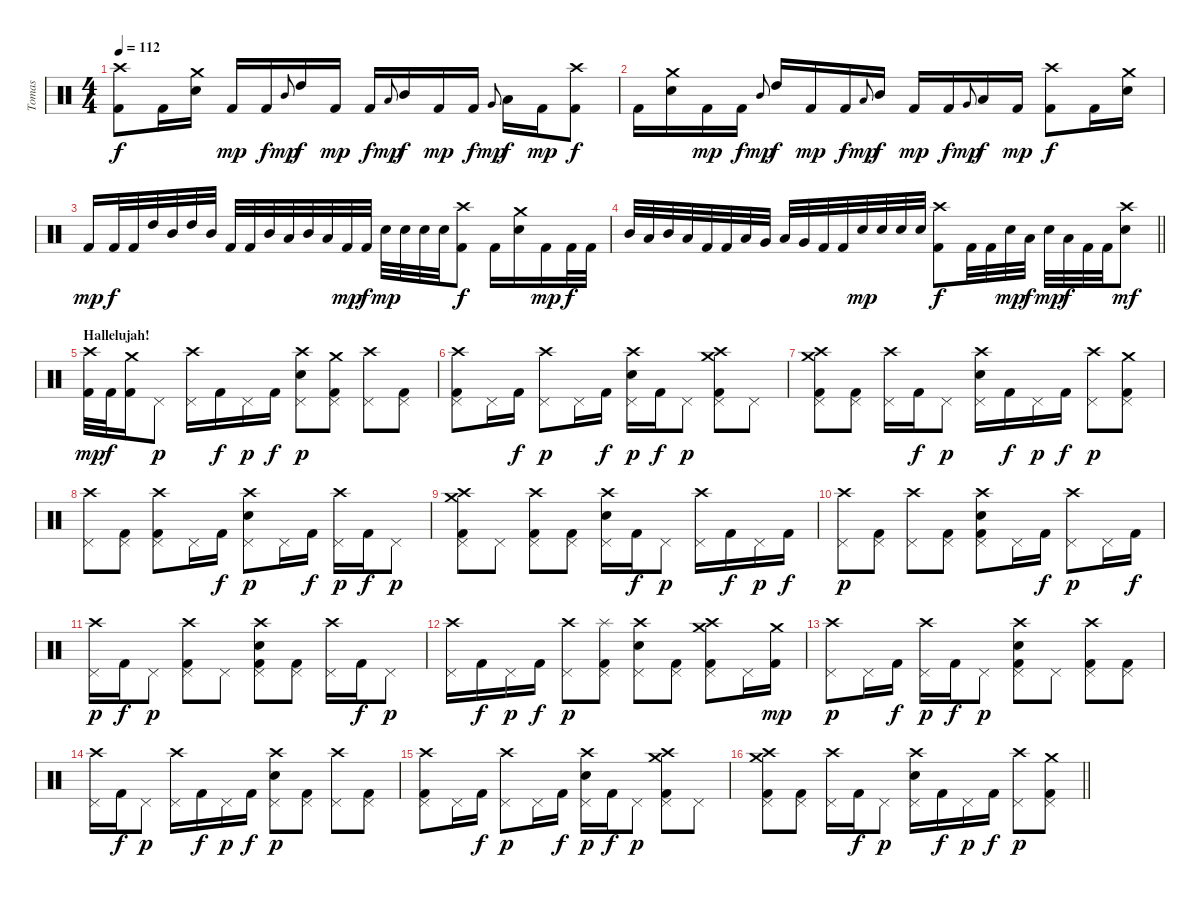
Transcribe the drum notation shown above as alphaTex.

\track ("Tomas" "Tomas") {instrument percussion}
\staff {score}
\articulation defaults
\ts (4 4)
\tempo 112
\clef neutral
\ks c
("Crash high (hit)" "Kick (hit) 2").8{dy f} "Kick (hit) 2".16 ("Crash medium (hit)" "Electric Snare (hit)").16 "Kick (hit) 2".16{dy mp} "Kick (hit) 2".16{dy f} "Mid Tom (hit)".8{gr onbeat dy mp} "High Tom (hit)".16{dy f} "Kick (hit) 2".16{dy mp} "Kick (hit) 2".16{dy f} "Low Tom (hit)".8{gr onbeat dy mp} "Mid Tom (hit)".16{dy f} "Kick (hit) 2".16{dy mp} "Kick (hit) 2".16{dy f} "Very Low Tom (hit)".8{gr onbeat dy mp} "Low Tom (hit)".16{dy f} "Kick (hit) 2".16{dy mp} ("Crash high (hit)" "Kick (hit) 2").8{dy f} |
"Kick (hit) 2".16 ("Crash medium (hit)" "Electric Snare (hit)").16 "Kick (hit) 2".16{dy mp} "Kick (hit) 2".16{dy f} "Mid Tom (hit)".8{gr onbeat dy mp} "High Tom (hit)".16{dy f} "Kick (hit) 2".16{dy mp} "Kick (hit) 2".16{dy f} "Low Tom (hit)".8{gr onbeat dy mp} "Mid Tom (hit)".16{dy f} "Kick (hit) 2".16{dy mp} "Kick (hit) 2".16{dy f} "Very Low Tom (hit)".8{gr onbeat dy mp} "Low Tom (hit)".16{dy f} "Kick (hit) 2".16{dy mp} ("Crash high (hit)" "Kick (hit) 2").8{dy f} "Kick (hit) 2".16 ("Crash medium (hit)" "Electric Snare (hit)").16 |
"Kick (hit) 2".16{dy mp} "Kick (hit) 2".32{dy f} "Kick (hit) 2".32 "High Tom (hit)".32 "Mid Tom (hit)".32 "High Tom (hit)".32 "Mid Tom (hit)".32 "Kick (hit) 2".32 "Kick (hit) 2".32 "Mid Tom (hit)".32 "Low Tom (hit)".32 "Mid Tom (hit)".32 "Low Tom (hit)".32 "Kick (hit) 2".32{dy mp} "Kick (hit) 2".32{dy f} "Electric Snare (hit)".32{dy mp} "Electric Snare (hit)".32 "Electric Snare (hit)".32 "Electric Snare (hit)".32 ("Crash high (hit)" "Kick (hit) 2").8{dy f} "Kick (hit) 2".16 ("Crash medium (hit)" "Electric Snare (hit)").16 "Kick (hit) 2".16{dy mp} "Kick (hit) 2".32{dy f} "Kick (hit) 2".32 |
\barLineRight lightlight "Mid Tom (hit)".32 "Low Tom (hit)".32 "Mid Tom (hit)".32 "Low Tom (hit)".32 "Kick (hit) 2".32 "Kick (hit) 2".32 "Low Tom (hit)".32 "Very Low Tom (hit)".32 "Low Tom (hit)".32 "Very Low Tom (hit)".32 "Kick (hit) 2".32 "Kick (hit) 2".32 "Electric Snare (hit)".32{dy mp} "Electric Snare (hit)".32 "Electric Snare (hit)".32 "Electric Snare (hit)".32
("Crash high (hit)" "Kick (hit) 2").8{dy f} "Kick (hit) 2".32 "Kick (hit) 2".32 "Electric Snare (hit)".32{dy mp} "Low Tom (hit)".32{dy f} "Electric Snare (hit)".32{dy mp} "Low Tom (hit)".32{dy f} "Kick (hit) 2".32 "Kick (hit) 2".32 ("Crash high (hit)" "Electric Snare (hit)").8{dy mf} |
\section ("" "Hallelujah!")
("Crash high (hit)" "Kick (hit) 2").32{dy mp} "Kick (hit) 2".32{dy f} ("Crash medium (hit)" "Kick (hit) 2").16 "Pedal Hi-Hat (hit)".8{dy p} ("Crash high (hit)" "Pedal Hi-Hat (hit)").16 "Kick (hit) 2".16{dy f} "Pedal Hi-Hat (hit)".16{dy p} "Kick (hit) 2".16{dy f} ("Crash high (hit)" "Pedal Hi-Hat (hit)" "Electric Snare (hit)").8{dy p} ("Crash medium (hit)" "Pedal Hi-Hat (hit)" "Kick (hit) 2").8 ("Crash high (hit)" "Pedal Hi-Hat (hit)").8 ("Pedal Hi-Hat (hit)" "Kick (hit) 2").8 |
("Crash high (hit)" "Pedal Hi-Hat (hit)" "Kick (hit) 2").8 "Pedal Hi-Hat (hit)".16 "Kick (hit) 2".16{dy f} ("Crash high (hit)" "Pedal Hi-Hat (hit)").8{dy p} "Pedal Hi-Hat (hit)".16 "Kick (hit) 2".16{dy f} ("Crash high (hit)" "Pedal Hi-Hat (hit)" "Electric Snare (hit)").16{dy p} "Kick (hit) 2".16{dy f} "Pedal Hi-Hat (hit)".8{dy p} ("Crash high (hit)" "Crash medium (hit)" "Pedal Hi-Hat (hit)" "Kick (hit) 2").8 "Pedal Hi-Hat (hit)".8 |
("Crash high (hit)" "Crash medium (hit)" "Pedal Hi-Hat (hit)" "Kick (hit) 2").8 ("Pedal Hi-Hat (hit)" "Kick (hit) 2").8 ("Crash high (hit)" "Pedal Hi-Hat (hit)").16 "Kick (hit) 2".16{dy f} "Pedal Hi-Hat (hit)".8{dy p} ("Crash high (hit)" "Pedal Hi-Hat (hit)" "Electric Snare (hit)").16 "Kick (hit) 2".16{dy f} "Pedal Hi-Hat (hit)".16{dy p} "Kick (hit) 2".16{dy f} ("Crash high (hit)" "Pedal Hi-Hat (hit)").8{dy p} ("Crash medium (hit)" "Pedal Hi-Hat (hit)" "Kick (hit) 2").8 |
("Crash high (hit)" "Pedal Hi-Hat (hit)").8 ("Pedal Hi-Hat (hit)" "Kick (hit) 2").8 ("Crash high (hit)" "Pedal Hi-Hat (hit)" "Kick (hit) 2").8 "Pedal Hi-Hat (hit)".16 "Kick (hit) 2".16{dy f} ("Crash high (hit)" "Pedal Hi-Hat (hit)" "Electric Snare (hit)").8{dy p} "Pedal Hi-Hat (hit)".16 "Kick (hit) 2".16{dy f} ("Crash high (hit)" "Pedal Hi-Hat (hit)").16{dy p} "Kick (hit) 2".16{dy f} "Pedal Hi-Hat (hit)".8{dy p} |
("Crash high (hit)" "Crash medium (hit)" "Pedal Hi-Hat (hit)" "Kick (hit) 2").8 "Pedal Hi-Hat (hit)".8 ("Crash high (hit)" "Pedal Hi-Hat (hit)" "Kick (hit) 2").8 ("Pedal Hi-Hat (hit)" "Kick (hit) 2").8 ("Crash high (hit)" "Pedal Hi-Hat (hit)" "Electric Snare (hit)").16 "Kick (hit) 2".16{dy f} "Pedal Hi-Hat (hit)".8{dy p} ("Crash high (hit)" "Pedal Hi-Hat (hit)").16 "Kick (hit) 2".16{dy f} "Pedal Hi-Hat (hit)".16{dy p} "Kick (hit) 2".16{dy f} |
("Crash high (hit)" "Pedal Hi-Hat (hit)").8{dy p} ("Pedal Hi-Hat (hit)" "Kick (hit) 2").8 ("Crash high (hit)" "Pedal Hi-Hat (hit)").8 ("Pedal Hi-Hat (hit)" "Kick (hit) 2").8 ("Crash high (hit)" "Pedal Hi-Hat (hit)" "Electric Snare (hit)" "Kick (hit) 2").8 "Pedal Hi-Hat (hit)".16 "Kick (hit) 2".16{dy f} ("Crash high (hit)" "Pedal Hi-Hat (hit)").8{dy p} "Pedal Hi-Hat (hit)".16 "Kick (hit) 2".16{dy f} |
("Crash high (hit)" "Pedal Hi-Hat (hit)").16{dy p} "Kick (hit) 2".16{dy f} "Pedal Hi-Hat (hit)".8{dy p} ("Crash high (hit)" "Pedal Hi-Hat (hit)" "Kick (hit) 2").8 "Pedal Hi-Hat (hit)".8 ("Crash high (hit)" "Pedal Hi-Hat (hit)" "Electric Snare (hit)" "Kick (hit) 2").8 ("Pedal Hi-Hat (hit)" "Kick (hit) 2").8 ("Crash high (hit)" "Pedal Hi-Hat (hit)").16 "Kick (hit) 2".16{dy f} "Pedal Hi-Hat (hit)".8{dy p} |
("Crash high (hit)" "Pedal Hi-Hat (hit)").16 "Kick (hit) 2".16{dy f} "Pedal Hi-Hat (hit)".16{dy p} "Kick (hit) 2".16{dy f} ("Crash high (hit)" "Pedal Hi-Hat (hit)").8{dy p} ("Splash (hit)" "Pedal Hi-Hat (hit)" "Kick (hit) 2").8 ("Crash high (hit)" "Pedal Hi-Hat (hit)" "Electric Snare (hit)").8 ("Pedal Hi-Hat (hit)" "Kick (hit) 2").8 ("Crash high (hit)" "Crash medium (hit)" "Pedal Hi-Hat (hit)" "Kick (hit) 2").8 "Pedal Hi-Hat (hit)".16 ("Crash medium (hit)" "Kick (hit) 2").16{dy mp} |
("Crash high (hit)" "Pedal Hi-Hat (hit)").8{dy p} "Pedal Hi-Hat (hit)".16 "Kick (hit) 2".16{dy f} ("Crash high (hit)" "Pedal Hi-Hat (hit)").16{dy p} "Kick (hit) 2".16{dy f} "Pedal Hi-Hat (hit)".8{dy p} ("Crash high (hit)" "Pedal Hi-Hat (hit)" "Electric Snare (hit)" "Kick (hit) 2").8 "Pedal Hi-Hat (hit)".8 ("Crash high (hit)" "Pedal Hi-Hat (hit)" "Kick (hit) 2").8 ("Pedal Hi-Hat (hit)" "Kick (hit) 2").8 |
("Crash high (hit)" "Pedal Hi-Hat (hit)").16 "Kick (hit) 2".16{dy f} "Pedal Hi-Hat (hit)".8{dy p} ("Crash high (hit)" "Pedal Hi-Hat (hit)").16 "Kick (hit) 2".16{dy f} "Pedal Hi-Hat (hit)".16{dy p} "Kick (hit) 2".16{dy f} ("Crash high (hit)" "Pedal Hi-Hat (hit)" "Electric Snare (hit)").8{dy p} ("Pedal Hi-Hat (hit)" "Kick (hit) 2").8 ("Crash high (hit)" "Pedal Hi-Hat (hit)").8 ("Pedal Hi-Hat (hit)" "Kick (hit) 2").8 |
("Crash high (hit)" "Pedal Hi-Hat (hit)" "Kick (hit) 2").8 "Pedal Hi-Hat (hit)".16 "Kick (hit) 2".16{dy f} ("Crash high (hit)" "Pedal Hi-Hat (hit)").8{dy p} "Pedal Hi-Hat (hit)".16 "Kick (hit) 2".16{dy f} ("Crash high (hit)" "Pedal Hi-Hat (hit)" "Electric Snare (hit)").16{dy p} "Kick (hit) 2".16{dy f} "Pedal Hi-Hat (hit)".8{dy p} ("Crash high (hit)" "Crash medium (hit)" "Pedal Hi-Hat (hit)" "Kick (hit) 2").8 "Pedal Hi-Hat (hit)".8 |
\barLineRight lightlight
("Crash high (hit)" "Crash medium (hit)" "Pedal Hi-Hat (hit)" "Kick (hit) 2").8 ("Pedal Hi-Hat (hit)" "Kick (hit) 2").8 ("Crash high (hit)" "Pedal Hi-Hat (hit)").16 "Kick (hit) 2".16{dy f} "Pedal Hi-Hat (hit)".8{dy p} ("Crash high (hit)" "Pedal Hi-Hat (hit)" "Electric Snare (hit)").16 "Kick (hit) 2".16{dy f} "Pedal Hi-Hat (hit)".16{dy p} "Kick (hit) 2".16{dy f} ("Crash high (hit)" "Pedal Hi-Hat (hit)").8{dy p} ("Crash medium (hit)" "Pedal Hi-Hat (hit)" "Kick (hit) 2").8
